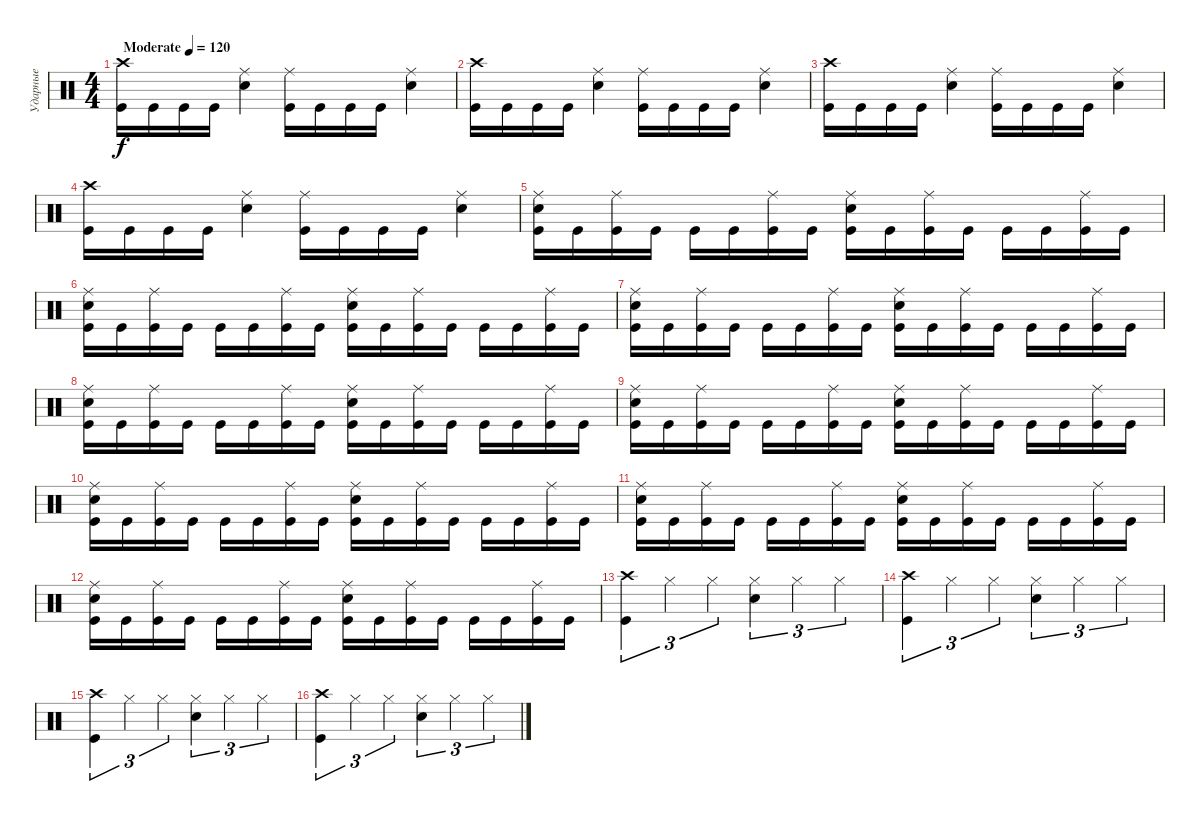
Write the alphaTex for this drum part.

\track ("Ударные" "Ударные") {instrument percussion}
\staff {score}
\articulation defaults
\ts (4 4)
\tempo (120 "Moderate")
\clef neutral
\ks c
("Crash high (hit)" "Kick (hit)").16{dy f} "Kick (hit)".16 "Kick (hit)".16 "Kick (hit)".16 ("Ride (middle)" "Snare (hit) 2").4 ("Ride (middle)" "Kick (hit)").16 "Kick (hit)".16 "Kick (hit)".16 "Kick (hit)".16 ("Ride (middle)" "Snare (hit) 2").4 |
("Crash high (hit)" "Kick (hit)").16 "Kick (hit)".16 "Kick (hit)".16 "Kick (hit)".16 ("Ride (middle)" "Snare (hit) 2").4 ("Ride (middle)" "Kick (hit)").16 "Kick (hit)".16 "Kick (hit)".16 "Kick (hit)".16 ("Ride (middle)" "Snare (hit) 2").4 |
("Crash high (hit)" "Kick (hit)").16 "Kick (hit)".16 "Kick (hit)".16 "Kick (hit)".16 ("Ride (middle)" "Snare (hit) 2").4 ("Ride (middle)" "Kick (hit)").16 "Kick (hit)".16 "Kick (hit)".16 "Kick (hit)".16 ("Ride (middle)" "Snare (hit) 2").4 |
("Crash high (hit)" "Kick (hit)").16 "Kick (hit)".16 "Kick (hit)".16 "Kick (hit)".16 ("Ride (middle)" "Snare (hit) 2").4 ("Ride (middle)" "Kick (hit)").16 "Kick (hit)".16 "Kick (hit)".16 "Kick (hit)".16 ("Ride (middle)" "Snare (hit) 2").4 |
("Ride (middle)" "Snare (hit) 2" "Kick (hit)").16 "Kick (hit)".16 ("Ride (middle)" "Kick (hit)").16 "Kick (hit)".16 "Kick (hit)".16 "Kick (hit)".16 ("Ride (middle)" "Kick (hit)").16 "Kick (hit)".16 ("Ride (middle)" "Snare (hit) 2" "Kick (hit)").16 "Kick (hit)".16 ("Ride (middle)" "Kick (hit)").16 "Kick (hit)".16 "Kick (hit)".16 "Kick (hit)".16 ("Ride (middle)" "Kick (hit)").16 "Kick (hit)".16 |
("Ride (middle)" "Snare (hit) 2" "Kick (hit)").16 "Kick (hit)".16 ("Ride (middle)" "Kick (hit)").16 "Kick (hit)".16 "Kick (hit)".16 "Kick (hit)".16 ("Ride (middle)" "Kick (hit)").16 "Kick (hit)".16 ("Ride (middle)" "Snare (hit) 2" "Kick (hit)").16 "Kick (hit)".16 ("Ride (middle)" "Kick (hit)").16 "Kick (hit)".16 "Kick (hit)".16 "Kick (hit)".16 ("Ride (middle)" "Kick (hit)").16 "Kick (hit)".16 |
("Ride (middle)" "Snare (hit) 2" "Kick (hit)").16 "Kick (hit)".16 ("Ride (middle)" "Kick (hit)").16 "Kick (hit)".16 "Kick (hit)".16 "Kick (hit)".16 ("Ride (middle)" "Kick (hit)").16 "Kick (hit)".16 ("Ride (middle)" "Snare (hit) 2" "Kick (hit)").16 "Kick (hit)".16 ("Ride (middle)" "Kick (hit)").16 "Kick (hit)".16 "Kick (hit)".16 "Kick (hit)".16 ("Ride (middle)" "Kick (hit)").16 "Kick (hit)".16 |
("Ride (middle)" "Snare (hit) 2" "Kick (hit)").16 "Kick (hit)".16 ("Ride (middle)" "Kick (hit)").16 "Kick (hit)".16 "Kick (hit)".16 "Kick (hit)".16 ("Ride (middle)" "Kick (hit)").16 "Kick (hit)".16 ("Ride (middle)" "Snare (hit) 2" "Kick (hit)").16 "Kick (hit)".16 ("Ride (middle)" "Kick (hit)").16 "Kick (hit)".16 "Kick (hit)".16 "Kick (hit)".16 ("Ride (middle)" "Kick (hit)").16 "Kick (hit)".16 |
("Ride (middle)" "Snare (hit) 2" "Kick (hit)").16 "Kick (hit)".16 ("Ride (middle)" "Kick (hit)").16 "Kick (hit)".16 "Kick (hit)".16 "Kick (hit)".16 ("Ride (middle)" "Kick (hit)").16 "Kick (hit)".16 ("Ride (middle)" "Snare (hit) 2" "Kick (hit)").16 "Kick (hit)".16 ("Ride (middle)" "Kick (hit)").16 "Kick (hit)".16 "Kick (hit)".16 "Kick (hit)".16 ("Ride (middle)" "Kick (hit)").16 "Kick (hit)".16 |
("Ride (middle)" "Snare (hit) 2" "Kick (hit)").16 "Kick (hit)".16 ("Ride (middle)" "Kick (hit)").16 "Kick (hit)".16 "Kick (hit)".16 "Kick (hit)".16 ("Ride (middle)" "Kick (hit)").16 "Kick (hit)".16 ("Ride (middle)" "Snare (hit) 2" "Kick (hit)").16 "Kick (hit)".16 ("Ride (middle)" "Kick (hit)").16 "Kick (hit)".16 "Kick (hit)".16 "Kick (hit)".16 ("Ride (middle)" "Kick (hit)").16 "Kick (hit)".16 |
("Ride (middle)" "Snare (hit) 2" "Kick (hit)").16 "Kick (hit)".16 ("Ride (middle)" "Kick (hit)").16 "Kick (hit)".16 "Kick (hit)".16 "Kick (hit)".16 ("Ride (middle)" "Kick (hit)").16 "Kick (hit)".16 ("Ride (middle)" "Snare (hit) 2" "Kick (hit)").16 "Kick (hit)".16 ("Ride (middle)" "Kick (hit)").16 "Kick (hit)".16 "Kick (hit)".16 "Kick (hit)".16 ("Ride (middle)" "Kick (hit)").16 "Kick (hit)".16 |
("Ride (middle)" "Snare (hit) 2" "Kick (hit)").16 "Kick (hit)".16 ("Ride (middle)" "Kick (hit)").16 "Kick (hit)".16 "Kick (hit)".16 "Kick (hit)".16 ("Ride (middle)" "Kick (hit)").16 "Kick (hit)".16 ("Ride (middle)" "Snare (hit) 2" "Kick (hit)").16 "Kick (hit)".16 ("Ride (middle)" "Kick (hit)").16 "Kick (hit)".16 "Kick (hit)".16 "Kick (hit)".16 ("Ride (middle)" "Kick (hit)").16 "Kick (hit)".16 |
("Crash high (hit)" "Kick (hit)").4{tu (3 2)} "Hi-Hat (closed)".4{tu (3 2)} "Hi-Hat (closed)".4{tu (3 2)} ("Hi-Hat (closed)" "Snare (hit) 2").4{tu (3 2)} "Hi-Hat (closed)".4{tu (3 2)} "Hi-Hat (closed)".4{tu (3 2)} |
("Crash high (hit)" "Kick (hit)").4{tu (3 2)} "Hi-Hat (closed)".4{tu (3 2)} "Hi-Hat (closed)".4{tu (3 2)} ("Hi-Hat (closed)" "Snare (hit) 2").4{tu (3 2)} "Hi-Hat (closed)".4{tu (3 2)} "Hi-Hat (closed)".4{tu (3 2)} |
("Crash high (hit)" "Kick (hit)").4{tu (3 2)} "Hi-Hat (closed)".4{tu (3 2)} "Hi-Hat (closed)".4{tu (3 2)} ("Hi-Hat (closed)" "Snare (hit) 2").4{tu (3 2)} "Hi-Hat (closed)".4{tu (3 2)} "Hi-Hat (closed)".4{tu (3 2)} |
("Crash high (hit)" "Kick (hit)").4{tu (3 2)} "Hi-Hat (closed)".4{tu (3 2)} "Hi-Hat (closed)".4{tu (3 2)} ("Hi-Hat (closed)" "Snare (hit) 2").4{tu (3 2)} "Hi-Hat (closed)".4{tu (3 2)} "Hi-Hat (closed)".4{tu (3 2)}
